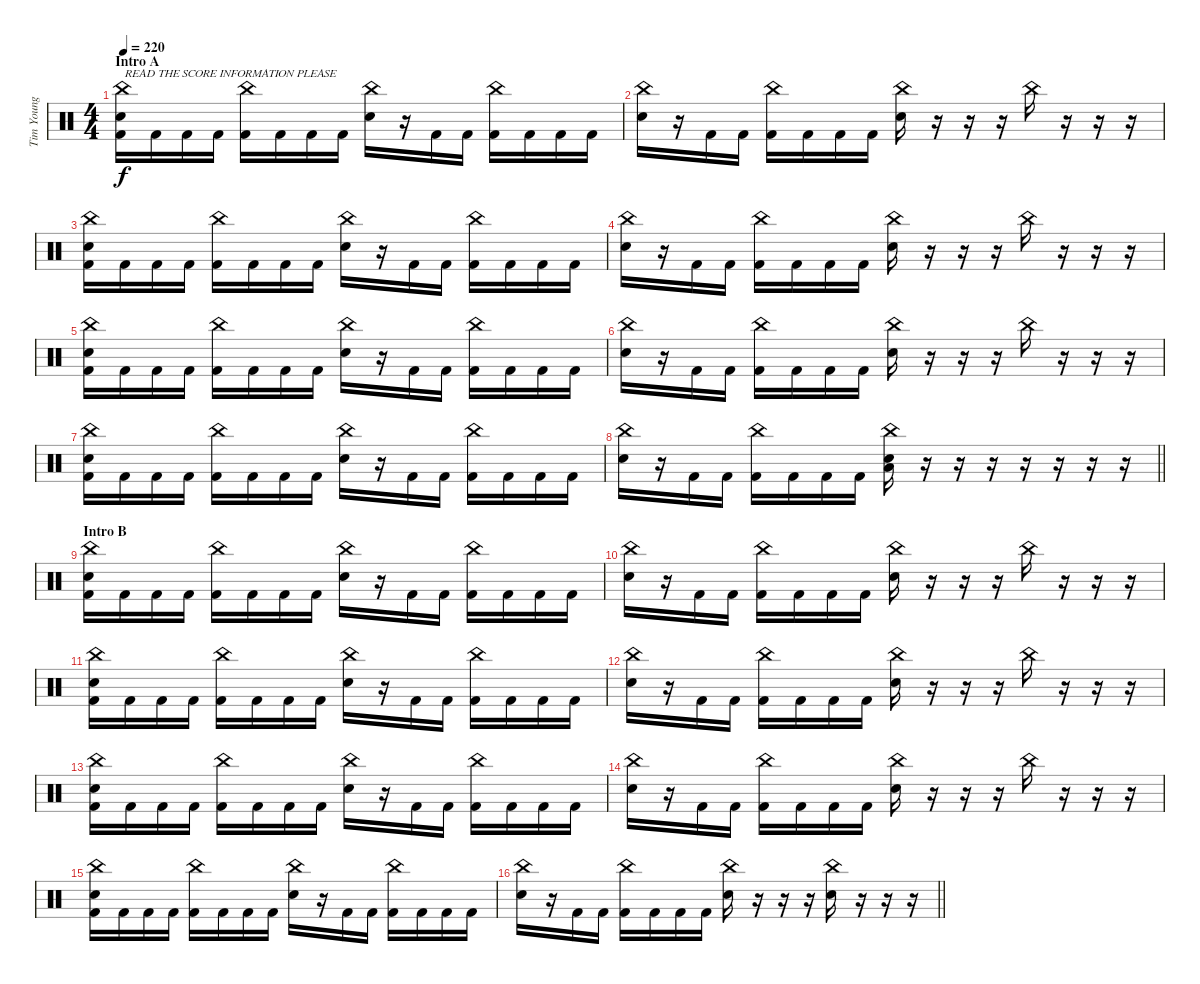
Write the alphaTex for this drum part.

\track ("Tim Young - Drums" "Tim Young ") {instrument percussion}
\staff {score}
\articulation defaults
\ts (4 4)
\section ("" "Intro A")
\tempo 220
\clef neutral
\ks c
("China (hit)" "Electric Snare (hit)" "Kick (hit) 2").16{txt "READ THE SCORE INFORMATION PLEASE" dy f} "Kick (hit) 2".16 "Kick (hit) 2".16 "Kick (hit) 2".16 ("China (hit)" "Kick (hit) 2").16 "Kick (hit) 2".16 "Kick (hit) 2".16 "Kick (hit) 2".16 ("China (hit)" "Electric Snare (hit)").16 r.16 "Kick (hit) 2".16 "Kick (hit) 2".16 ("China (hit)" "Kick (hit) 2").16 "Kick (hit) 2".16 "Kick (hit) 2".16 "Kick (hit) 2".16 |
("China (hit)" "Electric Snare (hit)").16 r.16 "Kick (hit) 2".16 "Kick (hit) 2".16 ("China (hit)" "Kick (hit) 2").16 "Kick (hit) 2".16 "Kick (hit) 2".16 "Kick (hit) 2".16 ("China (hit)" "Electric Snare (hit)").16 r.16 r.16 r.16 "China (hit)".16 r.16 r.16 r.16 |
("China (hit)" "Electric Snare (hit)" "Kick (hit) 2").16 "Kick (hit) 2".16 "Kick (hit) 2".16 "Kick (hit) 2".16 ("China (hit)" "Kick (hit) 2").16 "Kick (hit) 2".16 "Kick (hit) 2".16 "Kick (hit) 2".16 ("China (hit)" "Electric Snare (hit)").16 r.16 "Kick (hit) 2".16 "Kick (hit) 2".16 ("China (hit)" "Kick (hit) 2").16 "Kick (hit) 2".16 "Kick (hit) 2".16 "Kick (hit) 2".16 |
("China (hit)" "Electric Snare (hit)").16 r.16 "Kick (hit) 2".16 "Kick (hit) 2".16 ("China (hit)" "Kick (hit) 2").16 "Kick (hit) 2".16 "Kick (hit) 2".16 "Kick (hit) 2".16 ("China (hit)" "Electric Snare (hit)").16 r.16 r.16 r.16 "China (hit)".16 r.16 r.16 r.16 |
("China (hit)" "Electric Snare (hit)" "Kick (hit) 2").16 "Kick (hit) 2".16 "Kick (hit) 2".16 "Kick (hit) 2".16 ("China (hit)" "Kick (hit) 2").16 "Kick (hit) 2".16 "Kick (hit) 2".16 "Kick (hit) 2".16 ("China (hit)" "Electric Snare (hit)").16 r.16 "Kick (hit) 2".16 "Kick (hit) 2".16 ("China (hit)" "Kick (hit) 2").16 "Kick (hit) 2".16 "Kick (hit) 2".16 "Kick (hit) 2".16 |
("China (hit)" "Electric Snare (hit)").16 r.16 "Kick (hit) 2".16 "Kick (hit) 2".16 ("China (hit)" "Kick (hit) 2").16 "Kick (hit) 2".16 "Kick (hit) 2".16 "Kick (hit) 2".16 ("China (hit)" "Electric Snare (hit)").16 r.16 r.16 r.16 "China (hit)".16 r.16 r.16 r.16 |
("China (hit)" "Electric Snare (hit)" "Kick (hit) 2").16 "Kick (hit) 2".16 "Kick (hit) 2".16 "Kick (hit) 2".16 ("China (hit)" "Kick (hit) 2").16 "Kick (hit) 2".16 "Kick (hit) 2".16 "Kick (hit) 2".16 ("China (hit)" "Electric Snare (hit)").16 r.16 "Kick (hit) 2".16 "Kick (hit) 2".16 ("China (hit)" "Kick (hit) 2").16 "Kick (hit) 2".16 "Kick (hit) 2".16 "Kick (hit) 2".16 |
\barLineRight lightlight
("China (hit)" "Electric Snare (hit)").16 r.16 "Kick (hit) 2".16 "Kick (hit) 2".16 ("China (hit)" "Kick (hit) 2").16 "Kick (hit) 2".16 "Kick (hit) 2".16 "Kick (hit) 2".16 ("China (hit)" "Low Floor Tom (hit)" "Electric Snare (hit)").16 r.16 r.16 r.16 r.16 r.16 r.16 r.16 |
\section ("" "Intro B")
("China (hit)" "Electric Snare (hit)" "Kick (hit) 2").16 "Kick (hit) 2".16 "Kick (hit) 2".16 "Kick (hit) 2".16 ("China (hit)" "Kick (hit) 2").16 "Kick (hit) 2".16 "Kick (hit) 2".16 "Kick (hit) 2".16 ("China (hit)" "Electric Snare (hit)").16 r.16 "Kick (hit) 2".16 "Kick (hit) 2".16 ("China (hit)" "Kick (hit) 2").16 "Kick (hit) 2".16 "Kick (hit) 2".16 "Kick (hit) 2".16 |
("China (hit)" "Electric Snare (hit)").16 r.16 "Kick (hit) 2".16 "Kick (hit) 2".16 ("China (hit)" "Kick (hit) 2").16 "Kick (hit) 2".16 "Kick (hit) 2".16 "Kick (hit) 2".16 ("China (hit)" "Electric Snare (hit)").16 r.16 r.16 r.16 "China (hit)".16 r.16 r.16 r.16 |
("China (hit)" "Electric Snare (hit)" "Kick (hit) 2").16 "Kick (hit) 2".16 "Kick (hit) 2".16 "Kick (hit) 2".16 ("China (hit)" "Kick (hit) 2").16 "Kick (hit) 2".16 "Kick (hit) 2".16 "Kick (hit) 2".16 ("China (hit)" "Electric Snare (hit)").16 r.16 "Kick (hit) 2".16 "Kick (hit) 2".16 ("China (hit)" "Kick (hit) 2").16 "Kick (hit) 2".16 "Kick (hit) 2".16 "Kick (hit) 2".16 |
("China (hit)" "Electric Snare (hit)").16 r.16 "Kick (hit) 2".16 "Kick (hit) 2".16 ("China (hit)" "Kick (hit) 2").16 "Kick (hit) 2".16 "Kick (hit) 2".16 "Kick (hit) 2".16 ("China (hit)" "Electric Snare (hit)").16 r.16 r.16 r.16 "China (hit)".16 r.16 r.16 r.16 |
("China (hit)" "Electric Snare (hit)" "Kick (hit) 2").16 "Kick (hit) 2".16 "Kick (hit) 2".16 "Kick (hit) 2".16 ("China (hit)" "Kick (hit) 2").16 "Kick (hit) 2".16 "Kick (hit) 2".16 "Kick (hit) 2".16 ("China (hit)" "Electric Snare (hit)").16 r.16 "Kick (hit) 2".16 "Kick (hit) 2".16 ("China (hit)" "Kick (hit) 2").16 "Kick (hit) 2".16 "Kick (hit) 2".16 "Kick (hit) 2".16 |
("China (hit)" "Electric Snare (hit)").16 r.16 "Kick (hit) 2".16 "Kick (hit) 2".16 ("China (hit)" "Kick (hit) 2").16 "Kick (hit) 2".16 "Kick (hit) 2".16 "Kick (hit) 2".16 ("China (hit)" "Electric Snare (hit)").16 r.16 r.16 r.16 "China (hit)".16 r.16 r.16 r.16 |
("China (hit)" "Electric Snare (hit)" "Kick (hit) 2").16 "Kick (hit) 2".16 "Kick (hit) 2".16 "Kick (hit) 2".16 ("China (hit)" "Kick (hit) 2").16 "Kick (hit) 2".16 "Kick (hit) 2".16 "Kick (hit) 2".16 ("China (hit)" "Electric Snare (hit)").16 r.16 "Kick (hit) 2".16 "Kick (hit) 2".16 ("China (hit)" "Kick (hit) 2").16 "Kick (hit) 2".16 "Kick (hit) 2".16 "Kick (hit) 2".16 |
\barLineRight lightlight
("China (hit)" "Electric Snare (hit)").16 r.16 "Kick (hit) 2".16 "Kick (hit) 2".16 ("China (hit)" "Kick (hit) 2").16 "Kick (hit) 2".16 "Kick (hit) 2".16 "Kick (hit) 2".16 ("China (hit)" "Electric Snare (hit)").16 r.16 r.16 r.16 ("China (hit)" "Electric Snare (hit)").16 r.16 r.16 r.16
